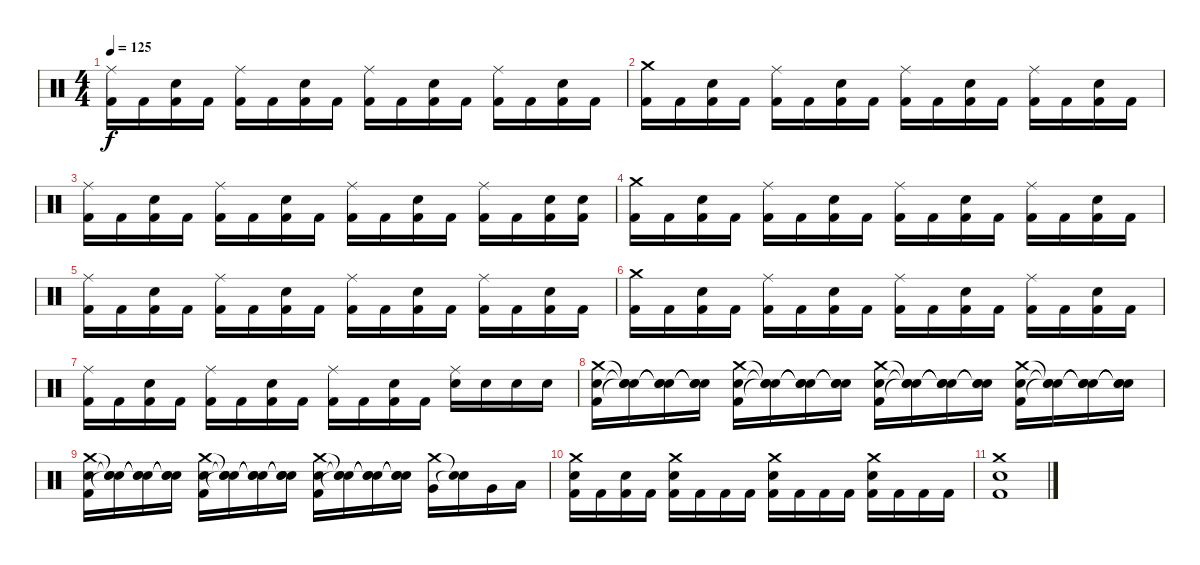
\track (" " " ") {instrument percussion}
\staff {score}
\articulation defaults
\ts (4 4)
\tempo 125
\clef neutral
\ks c
("Ride (middle)" "Kick (hit) 2").16{dy f} "Kick (hit) 2".16 ("Snare (hit) 2" "Kick (hit) 2").16 "Kick (hit) 2".16 ("Ride (middle)" "Kick (hit) 2").16 "Kick (hit) 2".16 ("Snare (hit) 2" "Kick (hit) 2").16 "Kick (hit) 2".16 ("Ride (middle)" "Kick (hit) 2").16 "Kick (hit) 2".16 ("Snare (hit) 2" "Kick (hit) 2").16 "Kick (hit) 2".16 ("Ride (middle)" "Kick (hit) 2").16 "Kick (hit) 2".16 ("Snare (hit) 2" "Kick (hit) 2").16 "Kick (hit) 2".16 |
("Crash medium (hit)" "Kick (hit) 2").16 "Kick (hit) 2".16 ("Snare (hit) 2" "Kick (hit) 2").16 "Kick (hit) 2".16 ("Ride (middle)" "Kick (hit) 2").16 "Kick (hit) 2".16 ("Snare (hit) 2" "Kick (hit) 2").16 "Kick (hit) 2".16 ("Ride (middle)" "Kick (hit) 2").16 "Kick (hit) 2".16 ("Snare (hit) 2" "Kick (hit) 2").16 "Kick (hit) 2".16 ("Ride (middle)" "Kick (hit) 2").16 "Kick (hit) 2".16 ("Snare (hit) 2" "Kick (hit) 2").16 "Kick (hit) 2".16 |
("Ride (middle)" "Kick (hit) 2").16 "Kick (hit) 2".16 ("Snare (hit) 2" "Kick (hit) 2").16 "Kick (hit) 2".16 ("Ride (middle)" "Kick (hit) 2").16 "Kick (hit) 2".16 ("Snare (hit) 2" "Kick (hit) 2").16 "Kick (hit) 2".16 ("Ride (middle)" "Kick (hit) 2").16 "Kick (hit) 2".16 ("Snare (hit) 2" "Kick (hit) 2").16 "Kick (hit) 2".16 ("Ride (middle)" "Kick (hit) 2").16 "Kick (hit) 2".16 ("Snare (hit) 2" "Kick (hit) 2").16 ("Snare (hit) 2" "Kick (hit) 2").16 |
("Crash medium (hit)" "Kick (hit) 2").16 "Kick (hit) 2".16 ("Snare (hit) 2" "Kick (hit) 2").16 "Kick (hit) 2".16 ("Ride (middle)" "Kick (hit) 2").16 "Kick (hit) 2".16 ("Snare (hit) 2" "Kick (hit) 2").16 "Kick (hit) 2".16 ("Ride (middle)" "Kick (hit) 2").16 "Kick (hit) 2".16 ("Snare (hit) 2" "Kick (hit) 2").16 "Kick (hit) 2".16 ("Ride (middle)" "Kick (hit) 2").16 "Kick (hit) 2".16 ("Snare (hit) 2" "Kick (hit) 2").16 "Kick (hit) 2".16 |
("Ride (middle)" "Kick (hit) 2").16 "Kick (hit) 2".16 ("Snare (hit) 2" "Kick (hit) 2").16 "Kick (hit) 2".16 ("Ride (middle)" "Kick (hit) 2").16 "Kick (hit) 2".16 ("Snare (hit) 2" "Kick (hit) 2").16 "Kick (hit) 2".16 ("Ride (middle)" "Kick (hit) 2").16 "Kick (hit) 2".16 ("Snare (hit) 2" "Kick (hit) 2").16 "Kick (hit) 2".16 ("Ride (middle)" "Kick (hit) 2").16 "Kick (hit) 2".16 ("Snare (hit) 2" "Kick (hit) 2").16 "Kick (hit) 2".16 |
("Crash medium (hit)" "Kick (hit) 2").16 "Kick (hit) 2".16 ("Snare (hit) 2" "Kick (hit) 2").16 "Kick (hit) 2".16 ("Ride (middle)" "Kick (hit) 2").16 "Kick (hit) 2".16 ("Snare (hit) 2" "Kick (hit) 2").16 "Kick (hit) 2".16 ("Ride (middle)" "Kick (hit) 2").16 "Kick (hit) 2".16 ("Snare (hit) 2" "Kick (hit) 2").16 "Kick (hit) 2".16 ("Ride (middle)" "Kick (hit) 2").16 "Kick (hit) 2".16 ("Snare (hit) 2" "Kick (hit) 2").16 "Kick (hit) 2".16 |
("Ride (middle)" "Kick (hit) 2").16 "Kick (hit) 2".16 ("Snare (hit) 2" "Kick (hit) 2").16 "Kick (hit) 2".16 ("Ride (middle)" "Kick (hit) 2").16 "Kick (hit) 2".16 ("Snare (hit) 2" "Kick (hit) 2").16 "Kick (hit) 2".16 ("Ride (middle)" "Kick (hit) 2").16 "Kick (hit) 2".16 ("Snare (hit) 2" "Kick (hit) 2").16 "Kick (hit) 2".16 ("Ride (middle)" "Snare (hit) 2").16 "Snare (hit) 2".16 "Snare (hit) 2".16 "Snare (hit) 2".16 |
("Crash medium (hit)" "Snare (hit) 2" "Kick (hit) 2").16 ("Snare (hit)"{t} "Snare (hit)"{t} "Snare (hit)"{t}).16 ("Snare (hit)"{t} "Snare (hit)"{t} "Snare (hit)"{t}).16 ("Snare (hit)"{t} "Snare (hit)"{t} "Snare (hit)"{t}).16 ("Crash medium (hit)" "Snare (hit) 2" "Kick (hit) 2").16 ("Snare (hit)"{t} "Snare (hit)"{t} "Snare (hit)"{t}).16 ("Snare (hit)"{t} "Snare (hit)"{t} "Snare (hit)"{t}).16 ("Snare (hit)"{t} "Snare (hit)"{t} "Snare (hit)"{t}).16 ("Crash medium (hit)" "Snare (hit) 2" "Kick (hit) 2").16 ("Snare (hit)"{t} "Snare (hit)"{t} "Snare (hit)"{t}).16 ("Snare (hit)"{t} "Snare (hit)"{t} "Snare (hit)"{t}).16 ("Snare (hit)"{t} "Snare (hit)"{t} "Snare (hit)"{t}).16 ("Crash medium (hit)" "Snare (hit) 2" "Kick (hit) 2").16 ("Snare (hit)"{t} "Snare (hit)"{t} "Snare (hit)"{t}).16 ("Snare (hit)"{t} "Snare (hit)"{t} "Snare (hit)"{t}).16 ("Snare (hit)"{t} "Snare (hit)"{t} "Snare (hit)"{t}).16 |
("Crash medium (hit)" "Snare (hit) 2" "Kick (hit) 2").16 ("Snare (hit)"{t} "Snare (hit)"{t} "Snare (hit)"{t}).16 ("Snare (hit)"{t} "Snare (hit)"{t} "Snare (hit)"{t}).16 ("Snare (hit)"{t} "Snare (hit)"{t} "Snare (hit)"{t}).16 ("Crash medium (hit)" "Snare (hit) 2" "Kick (hit) 2").16 ("Snare (hit)"{t} "Snare (hit)"{t} "Snare (hit)"{t}).16 ("Snare (hit)"{t} "Snare (hit)"{t} "Snare (hit)"{t}).16 ("Snare (hit)"{t} "Snare (hit)"{t} "Snare (hit)"{t}).16 ("Crash medium (hit)" "Snare (hit) 2" "Kick (hit) 2").16 ("Snare (hit)"{t} "Snare (hit)"{t} "Snare (hit)"{t}).16 ("Snare (hit)"{t} "Snare (hit)"{t} "Snare (hit)"{t}).16 ("Snare (hit)"{t} "Snare (hit)"{t} "Snare (hit)"{t}).16 ("Crash medium (hit)" "Very Low Tom (hit)").16 ("Snare (hit)"{t} "Snare (hit)"{t}).16 "Very Low Tom (hit)".16 "Low Floor Tom (hit)".16 |
("Crash medium (hit)" "Snare (hit) 2" "Kick (hit) 2").16 "Kick (hit) 2".16 ("Snare (hit) 2" "Kick (hit) 2").16 "Kick (hit) 2".16 ("Crash medium (hit)" "Snare (hit) 2" "Kick (hit) 2").16 "Kick (hit) 2".16 "Kick (hit) 2".16 "Kick (hit) 2".16 ("Crash medium (hit)" "Snare (hit) 2" "Kick (hit) 2").16 "Kick (hit) 2".16 "Kick (hit) 2".16 "Kick (hit) 2".16 ("Crash medium (hit)" "Snare (hit) 2" "Kick (hit) 2").16 "Kick (hit) 2".16 "Kick (hit) 2".16 "Kick (hit) 2".16 |
("Crash medium (hit)" "Snare (hit) 2" "Kick (hit) 2").1
